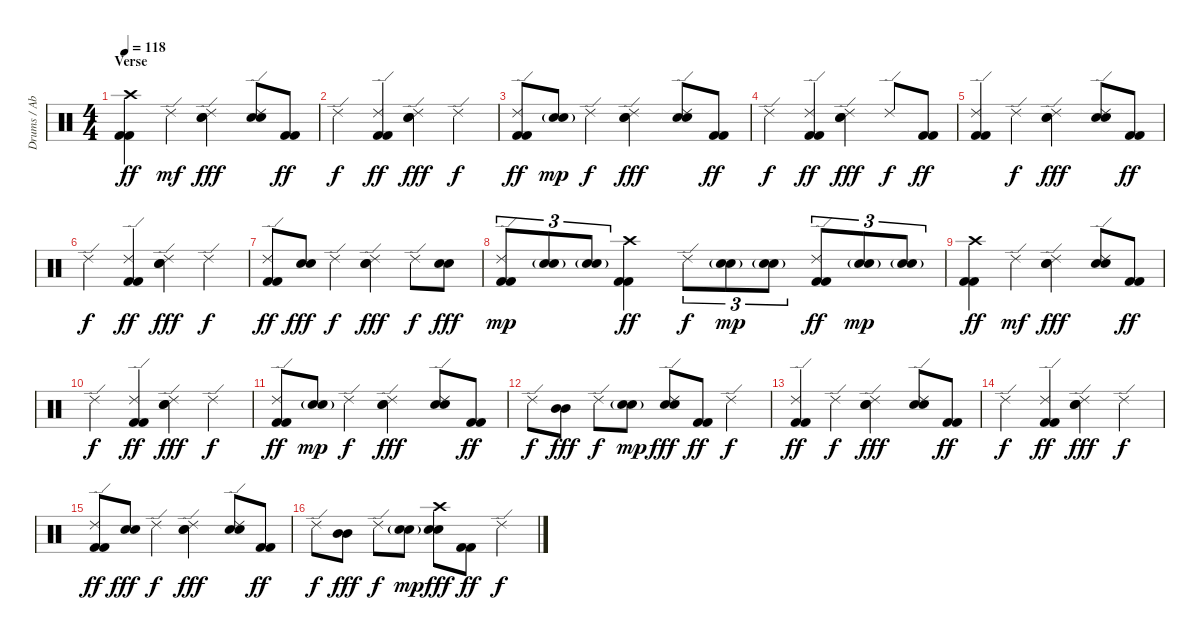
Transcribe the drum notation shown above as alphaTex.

\track ("Drums / Abe Cunningham" "Drums / Ab") {instrument percussion}
\staff {score}
\articulation defaults
\ts (4 4)
\section ("" "Verse")
\tempo 118
\clef neutral
\ks c
("Crash high (hit)" "Kick (hit) 2" "Kick (hit) 2").4{dy ff} "Ride (edge) 2".4{dy mf} ("Ride (edge) 2" "Electric Snare (hit)" "Electric Snare (hit)").4{dy fff} ("Ride (edge) 2" "Electric Snare (hit)" "Electric Snare (hit)").8 ("Kick (hit) 2" "Kick (hit) 2").8{dy ff} |
"Ride (edge) 2".4{dy f} ("Ride (edge) 2" "Kick (hit) 2" "Kick (hit) 2").4{dy ff} ("Ride (edge) 2" "Electric Snare (hit)" "Electric Snare (hit)").4{dy fff} "Ride (edge) 2".4{dy f} |
("Ride (edge) 2" "Kick (hit) 2" "Kick (hit) 2").8{dy ff} ("Electric Snare (hit)"{g} "Electric Snare (hit)"{g}).8{dy mp} "Ride (edge) 2".4{dy f} ("Ride (edge) 2" "Electric Snare (hit)" "Electric Snare (hit)").4{dy fff} ("Ride (edge) 2" "Electric Snare (hit)" "Electric Snare (hit)").8 ("Kick (hit) 2" "Kick (hit) 2").8{dy ff} |
"Ride (edge) 2".4{dy f} ("Ride (edge) 2" "Kick (hit) 2" "Kick (hit) 2").4{dy ff} ("Ride (edge) 2" "Electric Snare (hit)" "Electric Snare (hit)").4{dy fff} "Ride (edge) 2".8{dy f} ("Kick (hit) 2" "Kick (hit) 2").8{dy ff} |
("Ride (edge) 2" "Kick (hit) 2" "Kick (hit) 2").4 "Ride (edge) 2".4{dy f} ("Ride (edge) 2" "Electric Snare (hit)" "Electric Snare (hit)").4{dy fff} ("Ride (edge) 2" "Electric Snare (hit)" "Electric Snare (hit)").8 ("Kick (hit) 2" "Kick (hit) 2").8{dy ff} |
"Ride (edge) 2".4{dy f} ("Ride (edge) 2" "Kick (hit) 2" "Kick (hit) 2").4{dy ff} ("Ride (edge) 2" "Electric Snare (hit)" "Electric Snare (hit)").4{dy fff} "Ride (edge) 2".4{dy f} |
("Ride (edge) 2" "Kick (hit) 2" "Kick (hit) 2").8{dy ff} ("Electric Snare (hit)" "Electric Snare (hit)").8{dy fff} "Ride (edge) 2".4{dy f} ("Ride (edge) 2" "Electric Snare (hit)" "Electric Snare (hit)").4{dy fff} "Ride (edge) 2".8{dy f} ("Electric Snare (hit)" "Electric Snare (hit)").8{dy fff} |
("Ride (edge) 2" "Kick (hit) 2" "Kick (hit) 2").8{tu (3 2) dy mp} ("Electric Snare (hit)"{g} "Electric Snare (hit)"{g}).8{tu (3 2)} ("Electric Snare (hit)"{g} "Electric Snare (hit)"{g}).8{tu (3 2)} ("Crash high (hit)" "Kick (hit) 2" "Kick (hit) 2").4{dy ff} "Ride (edge) 2".8{tu (3 2) dy f} ("Electric Snare (hit)"{g} "Electric Snare (hit)"{g}).8{tu (3 2) dy mp} ("Electric Snare (hit)"{g} "Electric Snare (hit)"{g}).8{tu (3 2)} ("Ride (edge) 2" "Kick (hit) 2" "Kick (hit) 2").8{tu (3 2) dy ff} ("Electric Snare (hit)"{g} "Electric Snare (hit)"{g}).8{tu (3 2) dy mp} ("Electric Snare (hit)"{g} "Electric Snare (hit)"{g}).8{tu (3 2)} |
("Crash high (hit)" "Kick (hit) 2" "Kick (hit) 2").4{dy ff} "Ride (edge) 2".4{dy mf} ("Ride (edge) 2" "Electric Snare (hit)" "Electric Snare (hit)").4{dy fff} ("Ride (edge) 2" "Electric Snare (hit)" "Electric Snare (hit)").8 ("Kick (hit) 2" "Kick (hit) 2").8{dy ff} |
"Ride (edge) 2".4{dy f} ("Ride (edge) 2" "Kick (hit) 2" "Kick (hit) 2").4{dy ff} ("Ride (edge) 2" "Electric Snare (hit)" "Electric Snare (hit)").4{dy fff} "Ride (edge) 2".4{dy f} |
("Ride (edge) 2" "Kick (hit) 2" "Kick (hit) 2").8{dy ff} ("Electric Snare (hit)"{g} "Electric Snare (hit)"{g}).8{dy mp} "Ride (edge) 2".4{dy f} ("Ride (edge) 2" "Electric Snare (hit)" "Electric Snare (hit)").4{dy fff} ("Ride (edge) 2" "Electric Snare (hit)" "Electric Snare (hit)").8 ("Kick (hit) 2" "Kick (hit) 2").8{dy ff} |
"Ride (edge) 2".8{dy f} ("Mid Tom (hit)" "Mid Tom (hit)").8{dy fff} "Ride (edge) 2".8{dy f} ("Electric Snare (hit)"{g} "Electric Snare (hit)"{g}).8{dy mp} ("Ride (edge) 2" "Electric Snare (hit)" "Electric Snare (hit)").8{dy fff} ("Kick (hit) 2" "Kick (hit) 2").8{dy ff} "Ride (edge) 2".4{dy f} |
("Ride (edge) 2" "Kick (hit) 2" "Kick (hit) 2").4{dy ff} "Ride (edge) 2".4{dy f} ("Ride (edge) 2" "Electric Snare (hit)" "Electric Snare (hit)").4{dy fff} ("Ride (edge) 2" "Electric Snare (hit)" "Electric Snare (hit)").8 ("Kick (hit) 2" "Kick (hit) 2").8{dy ff} |
"Ride (edge) 2".4{dy f} ("Ride (edge) 2" "Kick (hit) 2" "Kick (hit) 2").4{dy ff} ("Ride (edge) 2" "Electric Snare (hit)" "Electric Snare (hit)").4{dy fff} "Ride (edge) 2".4{dy f} |
("Ride (edge) 2" "Kick (hit) 2" "Kick (hit) 2").8{dy ff} ("Electric Snare (hit)" "Electric Snare (hit)").8{dy fff} "Ride (edge) 2".4{dy f} ("Ride (edge) 2" "Electric Snare (hit)" "Electric Snare (hit)").4{dy fff} ("Ride (edge) 2" "Electric Snare (hit)" "Electric Snare (hit)").8 ("Kick (hit) 2" "Kick (hit) 2").8{dy ff} |
"Ride (edge) 2".8{dy f} ("Mid Tom (hit)" "Mid Tom (hit)").8{dy fff} "Ride (edge) 2".8{dy f} ("Electric Snare (hit)"{g} "Electric Snare (hit)"{g}).8{dy mp} ("Crash high (hit)" "Electric Snare (hit)" "Electric Snare (hit)").8{dy fff} ("Kick (hit) 2" "Kick (hit) 2").8{dy ff} "Ride (edge) 2".4{dy f}
